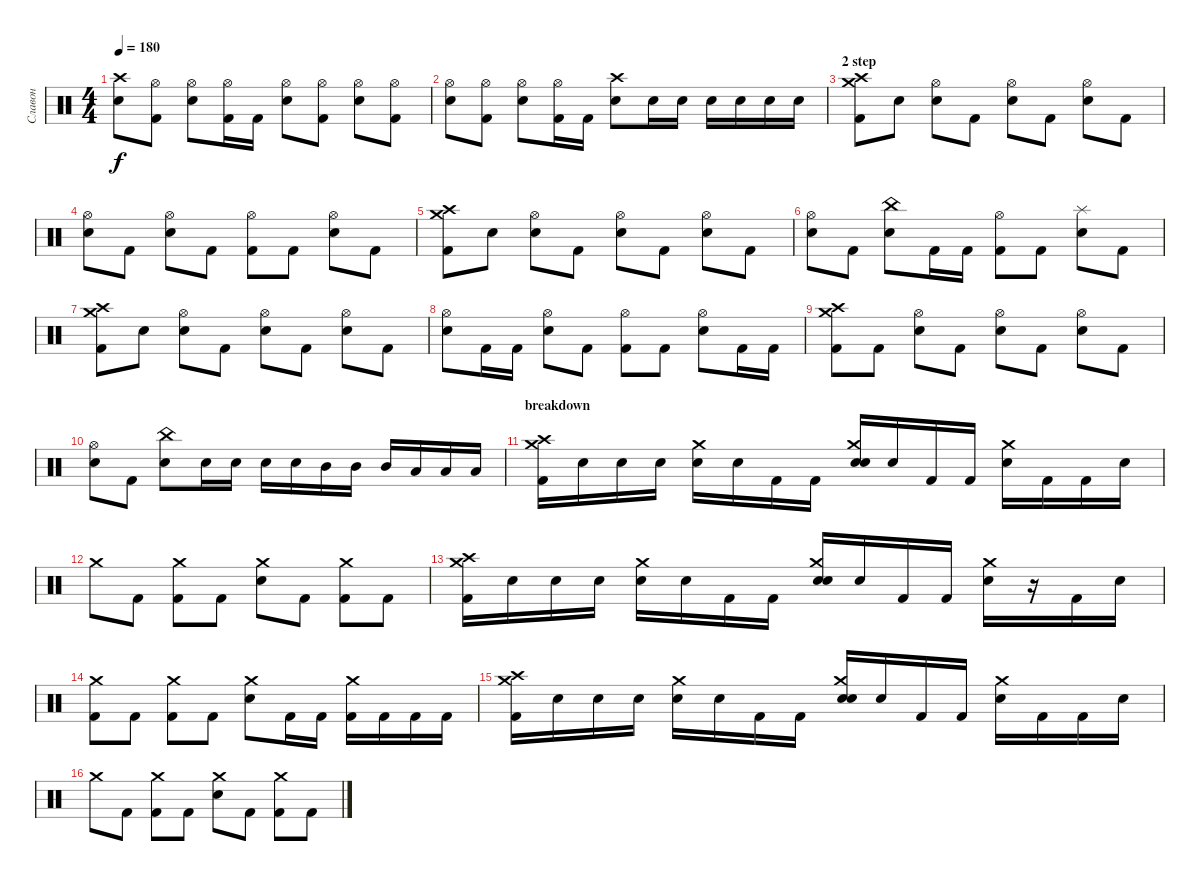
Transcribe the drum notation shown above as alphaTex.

\track ("Славон" "Славон") {instrument percussion}
\staff {score}
\articulation defaults
\ts (4 4)
\tempo 180
\clef neutral
\ks c
("Crash high (hit)" "Electric Snare (hit)").8{dy f} ("Hi-Hat (open)" "Kick (hit) 2").8 ("Hi-Hat (open)" "Electric Snare (hit)").8 ("Hi-Hat (open)" "Kick (hit) 2").16 "Kick (hit) 2".16 ("Hi-Hat (open)" "Electric Snare (hit)").8 ("Hi-Hat (open)" "Kick (hit) 2").8 ("Hi-Hat (open)" "Electric Snare (hit)").8 ("Hi-Hat (open)" "Kick (hit) 2").8 |
("Hi-Hat (open)" "Electric Snare (hit)").8 ("Hi-Hat (open)" "Kick (hit) 2").8 ("Hi-Hat (open)" "Electric Snare (hit)").8 ("Hi-Hat (open)" "Kick (hit) 2").16 "Kick (hit) 2".16 ("Crash high (hit)" "Electric Snare (hit)").8 "Electric Snare (hit)".16 "Electric Snare (hit)".16 "Electric Snare (hit)".16 "Electric Snare (hit)".16 "Electric Snare (hit)".16 "Electric Snare (hit)".16 |
\section ("" "2 step")
("Crash medium (hit)" "Crash high (hit)" "Kick (hit) 2").8 "Snare (hit)".8 ("Hi-Hat (open)" "Electric Snare (hit)").8 "Kick (hit) 2".8 ("Hi-Hat (open)" "Snare (hit)").8 "Kick (hit) 2".8 ("Hi-Hat (open)" "Electric Snare (hit)").8 "Kick (hit) 2".8 |
("Hi-Hat (open)" "Snare (hit)").8 "Kick (hit) 2".8 ("Hi-Hat (open)" "Electric Snare (hit)").8 "Kick (hit) 2".8 ("Hi-Hat (open)" "Kick (hit) 2").8 "Kick (hit) 2".8 ("Hi-Hat (open)" "Electric Snare (hit)").8 "Kick (hit) 2".8 |
("Crash medium (hit)" "Crash high (hit)" "Kick (hit) 2").8 "Snare (hit)".8 ("Hi-Hat (open)" "Electric Snare (hit)").8 "Kick (hit) 2".8 ("Hi-Hat (open)" "Snare (hit)").8 "Kick (hit) 2".8 ("Hi-Hat (open)" "Electric Snare (hit)").8 "Kick (hit) 2".8 |
("Hi-Hat (open)" "Snare (hit)").8 "Kick (hit) 2".8 ("China (hit)" "Electric Snare (hit)").8 "Kick (hit) 2".16 "Kick (hit) 2".16 ("Hi-Hat (open)" "Kick (hit) 2").8 "Kick (hit) 2".8 ("Splash (hit)" "Electric Snare (hit)").8 "Kick (hit) 2".8 |
("Crash medium (hit)" "Crash high (hit)" "Kick (hit) 2").8 "Snare (hit)".8 ("Hi-Hat (open)" "Electric Snare (hit)").8 "Kick (hit) 2".8 ("Hi-Hat (open)" "Snare (hit)").8 "Kick (hit) 2".8 ("Hi-Hat (open)" "Electric Snare (hit)").8 "Kick (hit) 2".8 |
("Hi-Hat (open)" "Snare (hit)").8 "Kick (hit) 2".16 "Kick (hit) 2".16 ("Hi-Hat (open)" "Electric Snare (hit)").8 "Kick (hit) 2".8 ("Hi-Hat (open)" "Kick (hit) 2").8 "Kick (hit) 2".8 ("Hi-Hat (open)" "Electric Snare (hit)").8 "Kick (hit) 2".16 "Kick (hit) 2".16 |
("Crash medium (hit)" "Crash high (hit)" "Kick (hit) 2").8 "Kick (hit) 2".8 ("Hi-Hat (open)" "Electric Snare (hit)").8 "Kick (hit) 2".8 ("Hi-Hat (open)" "Snare (hit)").8 "Kick (hit) 2".8 ("Hi-Hat (open)" "Electric Snare (hit)").8 "Kick (hit) 2".8 |
("Hi-Hat (open)" "Snare (hit)").8 "Kick (hit) 2".8 ("China (hit)" "Electric Snare (hit)").8 "Electric Snare (hit)".16 "Electric Snare (hit)".16 "Electric Snare (hit)".16 "Electric Snare (hit)".16 "Mid Tom (hit)".16 "Mid Tom (hit)".16 "Mid Tom (hit)".16 "Low Tom (hit)".16 "Low Tom (hit)".16 "Low Tom (hit)".16 |
\section ("" "breakdown")
("Crash high (hit)" "Crash medium (hit)" "Kick (hit) 2").16 "Snare (hit)".16 "Snare (hit)".16 "Snare (hit)".16 ("Crash medium (hit)" "Snare (hit)").16 "Snare (hit)".16 "Kick (hit) 2".16 "Kick (hit) 2".16 ("Crash medium (hit)" "Electric Snare (hit)" "Snare (hit)").16 "Snare (hit)".16 "Kick (hit) 2".16 "Kick (hit) 2".16 ("Crash medium (hit)" "Snare (hit)").16 "Kick (hit) 2".16 "Kick (hit) 2".16 "Snare (hit)".16 |
"Crash medium (hit)".8 "Kick (hit) 2".8 ("Crash medium (hit)" "Kick (hit) 2").8 "Kick (hit) 2".8 ("Crash medium (hit)" "Electric Snare (hit)").8 "Kick (hit) 2".8 ("Crash medium (hit)" "Kick (hit) 2").8 "Kick (hit) 2".8 |
("Crash high (hit)" "Crash medium (hit)" "Kick (hit) 2").16 "Snare (hit)".16 "Snare (hit)".16 "Snare (hit)".16 ("Crash medium (hit)" "Snare (hit)").16 "Snare (hit)".16 "Kick (hit) 2".16 "Kick (hit) 2".16 ("Crash medium (hit)" "Electric Snare (hit)" "Snare (hit)").16 "Snare (hit)".16 "Kick (hit) 2".16 "Kick (hit) 2".16 ("Crash medium (hit)" "Snare (hit)").16 r.16 "Kick (hit) 2".16 "Snare (hit)".16 |
("Crash medium (hit)" "Kick (hit) 2").8 "Kick (hit) 2".8 ("Crash medium (hit)" "Kick (hit) 2").8 "Kick (hit) 2".8 ("Crash medium (hit)" "Electric Snare (hit)").8 "Kick (hit) 2".16 "Kick (hit) 2".16 ("Crash medium (hit)" "Kick (hit) 2").16 "Kick (hit) 2".16 "Kick (hit) 2".16 "Kick (hit) 2".16 |
("Crash high (hit)" "Crash medium (hit)" "Kick (hit) 2").16 "Snare (hit)".16 "Snare (hit)".16 "Snare (hit)".16 ("Crash medium (hit)" "Snare (hit)").16 "Snare (hit)".16 "Kick (hit) 2".16 "Kick (hit) 2".16 ("Crash medium (hit)" "Electric Snare (hit)" "Snare (hit)").16 "Snare (hit)".16 "Kick (hit) 2".16 "Kick (hit) 2".16 ("Crash medium (hit)" "Snare (hit)").16 "Kick (hit) 2".16 "Kick (hit) 2".16 "Snare (hit)".16 |
"Crash medium (hit)".8 "Kick (hit) 2".8 ("Crash medium (hit)" "Kick (hit) 2").8 "Kick (hit) 2".8 ("Crash medium (hit)" "Electric Snare (hit)").8 "Kick (hit) 2".8 ("Crash medium (hit)" "Kick (hit) 2").8 "Kick (hit) 2".8
